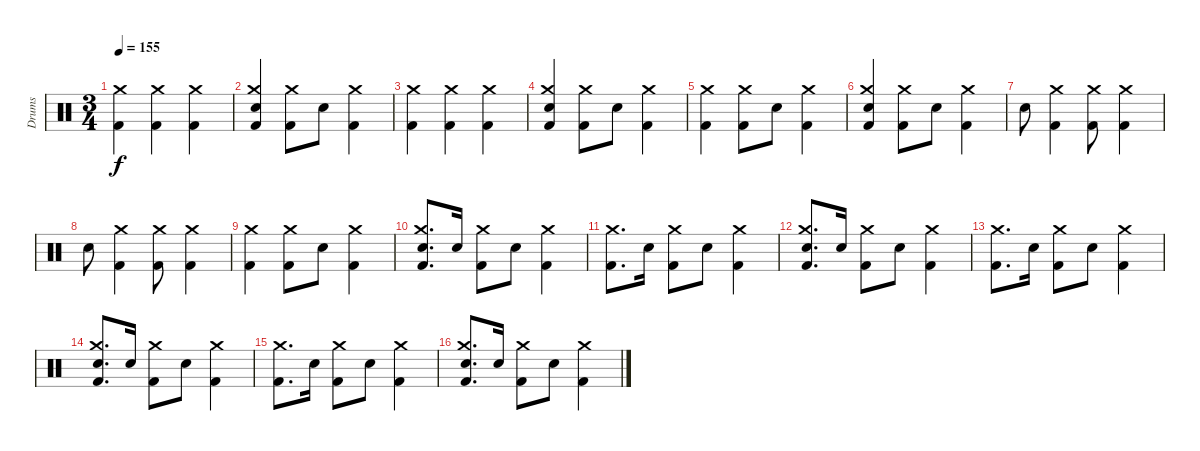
\track ("Drums" "Drums") {instrument percussion}
\staff {score}
\articulation defaults
\ts (3 4)
\tempo 155
\clef neutral
\ks c
("Kick (hit) 2" "Crash medium (hit)").4{dy f} ("Crash medium (hit)" "Kick (hit) 2").4 ("Crash medium (hit)" "Kick (hit) 2").4 |
("Crash medium (hit)" "Snare (hit) 2" "Kick (hit) 2").4 ("Crash medium (hit)" "Kick (hit) 2").8 "Snare (hit) 2".8 ("Kick (hit) 2" "Crash medium (hit)").4 |
("Kick (hit) 2" "Crash medium (hit)").4 ("Crash medium (hit)" "Kick (hit) 2").4 ("Crash medium (hit)" "Kick (hit) 2").4 |
("Crash medium (hit)" "Snare (hit) 2" "Kick (hit) 2").4 ("Crash medium (hit)" "Kick (hit) 2").8 "Snare (hit) 2".8 ("Kick (hit) 2" "Crash medium (hit)").4 |
("Kick (hit) 2" "Crash medium (hit)").4 ("Kick (hit) 2" "Crash medium (hit)").8 "Snare (hit) 2".8 ("Kick (hit) 2" "Crash medium (hit)").4 |
("Crash medium (hit)" "Snare (hit) 2" "Kick (hit) 2").4 ("Crash medium (hit)" "Kick (hit) 2").8 "Snare (hit) 2".8 ("Kick (hit) 2" "Crash medium (hit)").4 |
"Snare (hit) 2".8 ("Kick (hit) 2" "Crash medium (hit)").4 ("Kick (hit) 2" "Crash medium (hit)").8 ("Kick (hit) 2" "Crash medium (hit)").4 |
"Snare (hit) 2".8 ("Kick (hit) 2" "Crash medium (hit)").4 ("Kick (hit) 2" "Crash medium (hit)").8 ("Kick (hit) 2" "Crash medium (hit)").4 |
("Kick (hit) 2" "Crash medium (hit)").4 ("Crash medium (hit)" "Kick (hit) 2").8 "Snare (hit) 2".8 ("Kick (hit) 2" "Crash medium (hit)").4 |
("Snare (hit) 2" "Crash medium (hit)" "Kick (hit) 2").8{d} "Snare (hit) 2".16 ("Kick (hit) 2" "Crash medium (hit)").8 "Snare (hit) 2".8 ("Kick (hit) 2" "Crash medium (hit)").4 |
("Kick (hit) 2" "Crash medium (hit)").8{d} "Snare (hit) 2".16 ("Kick (hit) 2" "Crash medium (hit)").8 "Snare (hit) 2".8 ("Kick (hit) 2" "Crash medium (hit)").4 |
("Crash medium (hit)" "Snare (hit) 2" "Kick (hit) 2").8{d} "Snare (hit) 2".16 ("Kick (hit) 2" "Crash medium (hit)").8 "Snare (hit) 2".8 ("Kick (hit) 2" "Crash medium (hit)").4 |
("Kick (hit) 2" "Crash medium (hit)").8{d} "Snare (hit) 2".16 ("Kick (hit) 2" "Crash medium (hit)").8 "Snare (hit) 2".8 ("Kick (hit) 2" "Crash medium (hit)").4 |
("Crash medium (hit)" "Snare (hit) 2" "Kick (hit) 2").8{d} "Snare (hit) 2".16 ("Kick (hit) 2" "Crash medium (hit)").8 "Snare (hit) 2".8 ("Kick (hit) 2" "Crash medium (hit)").4 |
("Kick (hit) 2" "Crash medium (hit)").8{d} "Snare (hit) 2".16 ("Kick (hit) 2" "Crash medium (hit)").8 "Snare (hit) 2".8 ("Kick (hit) 2" "Crash medium (hit)").4 |
("Crash medium (hit)" "Snare (hit) 2" "Kick (hit) 2").8{d} "Snare (hit) 2".16 ("Kick (hit) 2" "Crash medium (hit)").8 "Snare (hit) 2".8 ("Kick (hit) 2" "Crash medium (hit)").4
